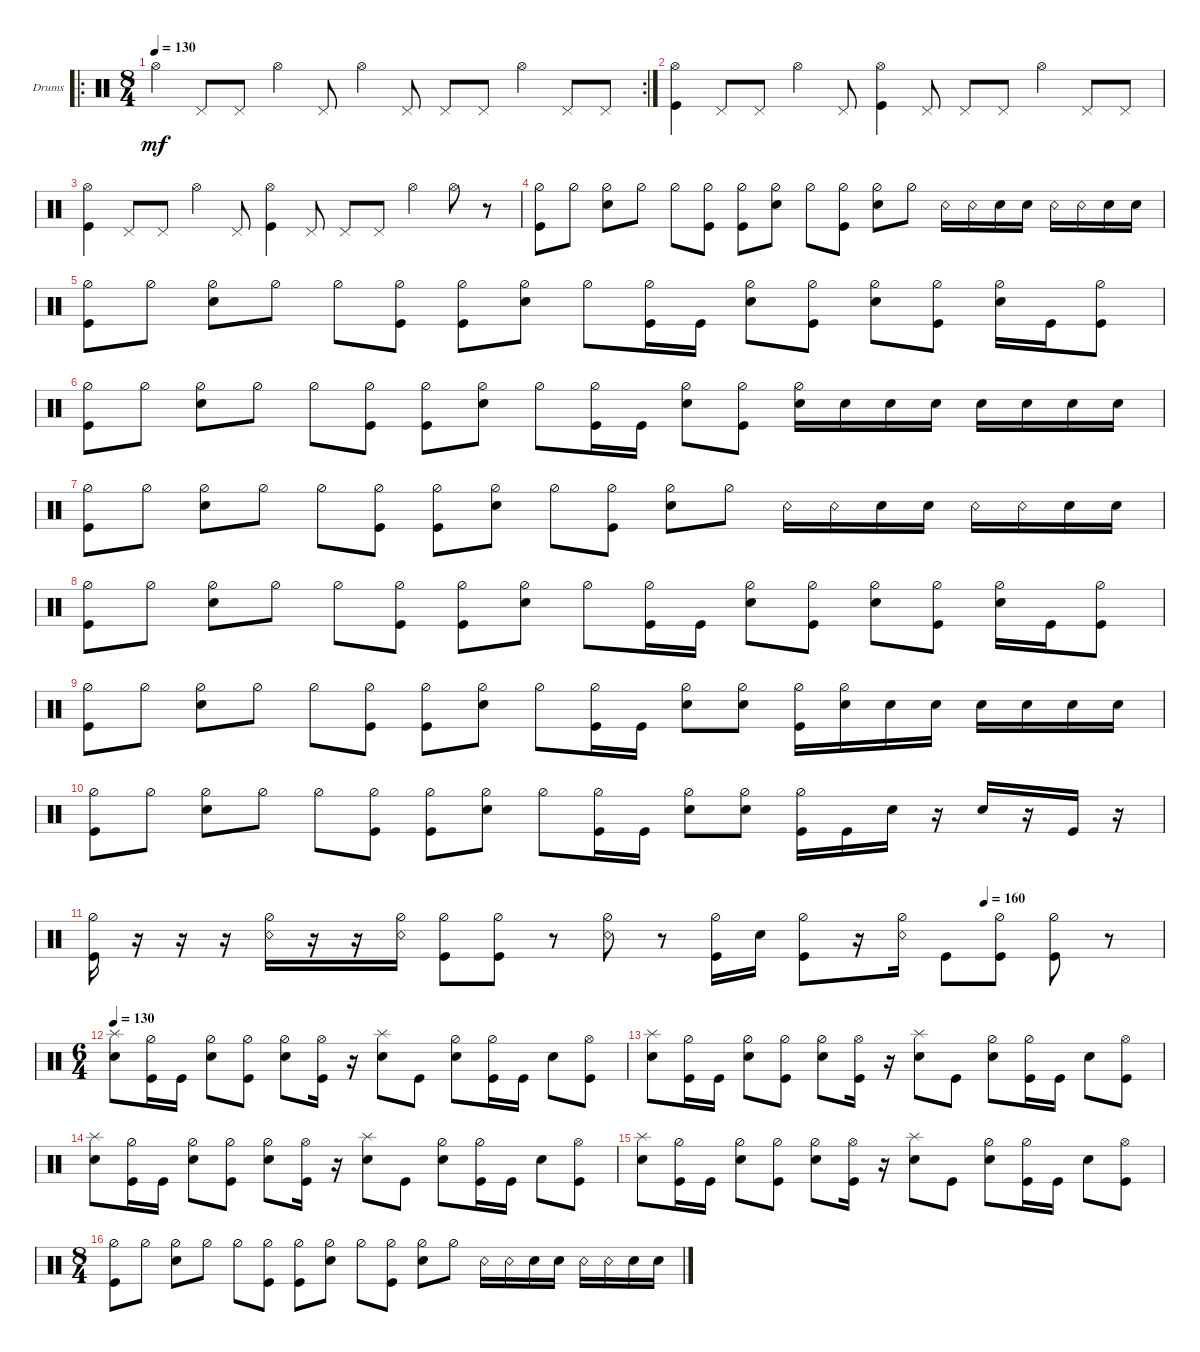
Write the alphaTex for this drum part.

\bracketExtendMode groupsimilarinstruments
\firstSystemTrackNameOrientation horizontal
\otherSystemsTrackNameOrientation horizontal
\track ("Drumkit" "Drums") {instrument percussion}
\staff {score}
\articulation defaults
\ro
\rc 2
\ts (8 4)
\tempo 130
\clef neutral
\ks c "Hi-Hat (open)".4{dy mf} "Pedal Hi-Hat (hit)".8 "Pedal Hi-Hat (hit)".8 "Hi-Hat (open)".4 "Pedal Hi-Hat (hit)".8 "Hi-Hat (open)".4 "Pedal Hi-Hat (hit)".8 "Pedal Hi-Hat (hit)".8 "Pedal Hi-Hat (hit)".8 "Hi-Hat (open)".4 "Pedal Hi-Hat (hit)".8 "Pedal Hi-Hat (hit)".8
|
("Hi-Hat (open)" "Kick (hit)").4 "Pedal Hi-Hat (hit)".8 "Pedal Hi-Hat (hit)".8 "Hi-Hat (open)".4 "Pedal Hi-Hat (hit)".8 ("Hi-Hat (open)" "Kick (hit)").4 "Pedal Hi-Hat (hit)".8 "Pedal Hi-Hat (hit)".8 "Pedal Hi-Hat (hit)".8 "Hi-Hat (open)".4 "Pedal Hi-Hat (hit)".8 "Pedal Hi-Hat (hit)".8 |
("Hi-Hat (open)" "Kick (hit)").4 "Pedal Hi-Hat (hit)".8 "Pedal Hi-Hat (hit)".8 "Hi-Hat (open)".4 "Pedal Hi-Hat (hit)".8 ("Hi-Hat (open)" "Kick (hit)").4 "Pedal Hi-Hat (hit)".8 "Pedal Hi-Hat (hit)".8 "Pedal Hi-Hat (hit)".8 "Hi-Hat (open)".4 "Hi-Hat (open)".8 r.8 |
("Hi-Hat (half)" "Kick (hit)").8 "Hi-Hat (half)".8 ("Hi-Hat (half)" "Snare (hit) 2").8 "Hi-Hat (half)".8 "Hi-Hat (half)".8 ("Hi-Hat (half)" "Kick (hit)").8 ("Hi-Hat (half)" "Kick (hit)").8 ("Hi-Hat (half)" "Snare (hit) 2").8 "Hi-Hat (half)".8 ("Hi-Hat (half)" "Kick (hit)").8 ("Hi-Hat (half)" "Snare (hit) 2").8 "Hi-Hat (half)".8 "Snare (rim shot)".16 "Snare (rim shot)".16 "Snare (hit) 2".16 "Snare (hit) 2".16 "Snare (rim shot)".16 "Snare (rim shot)".16 "Snare (hit) 2".16 "Snare (hit) 2".16 |
("Hi-Hat (half)" "Kick (hit)").8 "Hi-Hat (half)".8 ("Hi-Hat (half)" "Snare (hit) 2").8 "Hi-Hat (half)".8 "Hi-Hat (half)".8 ("Hi-Hat (half)" "Kick (hit)").8 ("Hi-Hat (half)" "Kick (hit)").8 ("Hi-Hat (half)" "Snare (hit) 2").8 "Hi-Hat (half)".8 ("Hi-Hat (half)" "Kick (hit)").16 "Kick (hit)".16 ("Hi-Hat (half)" "Snare (hit) 2").8 ("Kick (hit)" "Hi-Hat (half)").8 ("Snare (hit) 2" "Hi-Hat (half)").8 ("Kick (hit)" "Hi-Hat (half)").8 ("Snare (hit) 2" "Hi-Hat (half)").16 "Kick (hit)".16 ("Kick (hit)" "Hi-Hat (half)").8 |
("Hi-Hat (half)" "Kick (hit)").8 "Hi-Hat (half)".8 ("Hi-Hat (half)" "Snare (hit) 2").8 "Hi-Hat (half)".8 "Hi-Hat (half)".8 ("Hi-Hat (half)" "Kick (hit)").8 ("Hi-Hat (half)" "Kick (hit)").8 ("Hi-Hat (half)" "Snare (hit) 2").8 "Hi-Hat (half)".8 ("Hi-Hat (half)" "Kick (hit)").16 "Kick (hit)".16 ("Hi-Hat (half)" "Snare (hit) 2").8 ("Kick (hit)" "Hi-Hat (half)").8 ("Snare (hit) 2" "Hi-Hat (half)").16 "Snare (hit) 2".16 "Snare (hit) 2".16 "Snare (hit) 2".16 "Snare (hit) 2".16 "Snare (hit) 2".16 "Snare (hit) 2".16 "Snare (hit) 2".16 |
("Hi-Hat (half)" "Kick (hit)").8 "Hi-Hat (half)".8 ("Hi-Hat (half)" "Snare (hit) 2").8 "Hi-Hat (half)".8 "Hi-Hat (half)".8 ("Hi-Hat (half)" "Kick (hit)").8 ("Hi-Hat (half)" "Kick (hit)").8 ("Hi-Hat (half)" "Snare (hit) 2").8 "Hi-Hat (half)".8 ("Hi-Hat (half)" "Kick (hit)").8 ("Hi-Hat (half)" "Snare (hit) 2").8 "Hi-Hat (half)".8 "Snare (rim shot)".16 "Snare (rim shot)".16 "Snare (hit) 2".16 "Snare (hit) 2".16 "Snare (rim shot)".16 "Snare (rim shot)".16 "Snare (hit) 2".16 "Snare (hit) 2".16 |
("Hi-Hat (half)" "Kick (hit)").8 "Hi-Hat (half)".8 ("Hi-Hat (half)" "Snare (hit) 2").8 "Hi-Hat (half)".8 "Hi-Hat (half)".8 ("Hi-Hat (half)" "Kick (hit)").8 ("Hi-Hat (half)" "Kick (hit)").8 ("Hi-Hat (half)" "Snare (hit) 2").8 "Hi-Hat (half)".8 ("Hi-Hat (half)" "Kick (hit)").16 "Kick (hit)".16 ("Hi-Hat (half)" "Snare (hit) 2").8 ("Kick (hit)" "Hi-Hat (half)").8 ("Snare (hit) 2" "Hi-Hat (half)").8 ("Kick (hit)" "Hi-Hat (half)").8 ("Snare (hit) 2" "Hi-Hat (half)").16 "Kick (hit)".16 ("Kick (hit)" "Hi-Hat (half)").8 |
("Hi-Hat (half)" "Kick (hit)").8 "Hi-Hat (half)".8 ("Hi-Hat (half)" "Snare (hit) 2").8 "Hi-Hat (half)".8 "Hi-Hat (half)".8 ("Hi-Hat (half)" "Kick (hit)").8 ("Hi-Hat (half)" "Kick (hit)").8 ("Hi-Hat (half)" "Snare (hit) 2").8 "Hi-Hat (half)".8 ("Hi-Hat (half)" "Kick (hit)").16 "Kick (hit)".16 ("Hi-Hat (half)" "Snare (hit) 2").8 ("Hi-Hat (half)" "Snare (hit) 2").8 ("Hi-Hat (half)" "Kick (hit)").16 ("Snare (hit) 2" "Hi-Hat (half)").16 "Snare (hit) 2".16 "Snare (hit) 2".16 "Snare (hit) 2".16 "Snare (hit) 2".16 "Snare (hit) 2".16 "Snare (hit) 2".16 |
("Hi-Hat (half)" "Kick (hit)").8 "Hi-Hat (half)".8 ("Hi-Hat (half)" "Snare (hit) 2").8 "Hi-Hat (half)".8 "Hi-Hat (half)".8 ("Hi-Hat (half)" "Kick (hit)").8 ("Hi-Hat (half)" "Kick (hit)").8 ("Hi-Hat (half)" "Snare (hit) 2").8 "Hi-Hat (half)".8 ("Hi-Hat (half)" "Kick (hit)").16 "Kick (hit)".16 ("Hi-Hat (half)" "Snare (hit) 2").8 ("Hi-Hat (half)" "Snare (hit) 2").8 ("Hi-Hat (half)" "Kick (hit)").16 "Kick (hit)".16 "Snare (hit) 2".16 r.16 "Snare (hit) 2".16 r.16 "Kick (hit)".16 r.16 |
\tempo (160 0.833333)
("Kick (hit)" "Hi-Hat (half)").16 r.16 r.16 r.16 ("Snare (rim shot)" "Hi-Hat (half)").16 r.16 r.16 ("Snare (rim shot)" "Hi-Hat (half)").16 ("Kick (hit)" "Hi-Hat (half)").8 ("Kick (hit)" "Hi-Hat (half)").8 r.8 ("Snare (rim shot)" "Hi-Hat (half)").8 r.8 ("Hi-Hat (half)" "Kick (hit)").16 "Snare (hit) 2".16 ("Hi-Hat (half)" "Kick (hit)").8 r.16 ("Snare (rim shot)" "Hi-Hat (half)").16 "Kick (hit)".8 ("Kick (hit)" "Hi-Hat (half)").8 ("Hi-Hat (half)" "Kick (hit)").8 r.8 |
\ts (6 4)
\tempo 130
("Splash (hit)" "Snare (hit) 2").8 ("Kick (hit)" "Hi-Hat (half)").16 "Kick (hit)".16 ("Hi-Hat (half)" "Snare (hit) 2").8 ("Kick (hit)" "Hi-Hat (half)").8 ("Snare (hit) 2" "Hi-Hat (half)").8 ("Kick (hit)" "Hi-Hat (open)").16 r.16 ("Splash (hit)" "Snare (hit) 2").8 "Kick (hit)".8 ("Hi-Hat (half)" "Snare (hit) 2").8 ("Hi-Hat (half)" "Kick (hit)").16 "Kick (hit)".16 "Snare (hit) 2".8 ("Kick (hit)" "Hi-Hat (open)").8 |
("Splash (hit)" "Snare (hit) 2").8 ("Kick (hit)" "Hi-Hat (half)").16 "Kick (hit)".16 ("Hi-Hat (half)" "Snare (hit) 2").8 ("Kick (hit)" "Hi-Hat (half)").8 ("Snare (hit) 2" "Hi-Hat (half)").8 ("Kick (hit)" "Hi-Hat (open)").16 r.16 ("Splash (hit)" "Snare (hit) 2").8 "Kick (hit)".8 ("Hi-Hat (half)" "Snare (hit) 2").8 ("Hi-Hat (half)" "Kick (hit)").16 "Kick (hit)".16 "Snare (hit) 2".8 ("Kick (hit)" "Hi-Hat (open)").8 |
("Splash (hit)" "Snare (hit) 2").8 ("Kick (hit)" "Hi-Hat (half)").16 "Kick (hit)".16 ("Hi-Hat (half)" "Snare (hit) 2").8 ("Kick (hit)" "Hi-Hat (half)").8 ("Snare (hit) 2" "Hi-Hat (half)").8 ("Kick (hit)" "Hi-Hat (open)").16 r.16 ("Splash (hit)" "Snare (hit) 2").8 "Kick (hit)".8 ("Hi-Hat (half)" "Snare (hit) 2").8 ("Hi-Hat (half)" "Kick (hit)").16 "Kick (hit)".16 "Snare (hit) 2".8 ("Kick (hit)" "Hi-Hat (open)").8 |
("Splash (hit)" "Snare (hit) 2").8 ("Kick (hit)" "Hi-Hat (half)").16 "Kick (hit)".16 ("Hi-Hat (half)" "Snare (hit) 2").8 ("Kick (hit)" "Hi-Hat (half)").8 ("Snare (hit) 2" "Hi-Hat (half)").8 ("Kick (hit)" "Hi-Hat (open)").16 r.16 ("Splash (hit)" "Snare (hit) 2").8 "Kick (hit)".8 ("Hi-Hat (half)" "Snare (hit) 2").8 ("Hi-Hat (half)" "Kick (hit)").16 "Kick (hit)".16 "Snare (hit) 2".8 ("Kick (hit)" "Hi-Hat (open)").8 |
\ts (8 4)
("Hi-Hat (half)" "Kick (hit)").8 "Hi-Hat (half)".8 ("Hi-Hat (half)" "Snare (hit) 2").8 "Hi-Hat (half)".8 "Hi-Hat (half)".8 ("Hi-Hat (half)" "Kick (hit)").8 ("Hi-Hat (half)" "Kick (hit)").8 ("Hi-Hat (half)" "Snare (hit) 2").8 "Hi-Hat (half)".8 ("Hi-Hat (half)" "Kick (hit)").8 ("Hi-Hat (half)" "Snare (hit) 2").8 "Hi-Hat (half)".8 "Snare (rim shot)".16 "Snare (rim shot)".16 "Snare (hit) 2".16 "Snare (hit) 2".16 "Snare (rim shot)".16 "Snare (rim shot)".16 "Snare (hit) 2".16 "Snare (hit) 2".16
